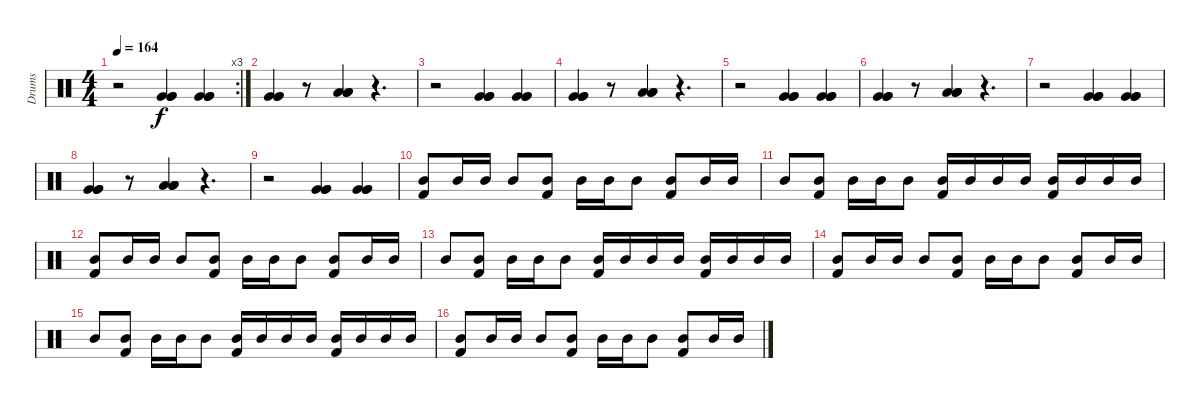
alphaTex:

\track ("Drums" "Drums") {instrument percussion}
\staff {score}
\articulation defaults
\rc 3
\ts (4 4)
\tempo 164
\clef neutral
\ks c
r.2{dy f} ("Very Low Tom (hit)" "Very Low Tom (hit)" "Very Low Tom (hit)").4 ("Very Low Tom (hit)" "Very Low Tom (hit)" "Very Low Tom (hit)").4 |
("Very Low Tom (hit)" "Very Low Tom (hit)" "Very Low Tom (hit)").4 r.8 ("Low Tom (hit)" "Low Tom (hit)" "Low Tom (hit)").4 r.4{d} |
r.2 ("Very Low Tom (hit)" "Very Low Tom (hit)" "Very Low Tom (hit)").4 ("Very Low Tom (hit)" "Very Low Tom (hit)" "Very Low Tom (hit)").4 |
("Very Low Tom (hit)" "Very Low Tom (hit)" "Very Low Tom (hit)").4 r.8 ("Low Tom (hit)" "Low Tom (hit)" "Low Tom (hit)").4 r.4{d} |
r.2 ("Very Low Tom (hit)" "Very Low Tom (hit)" "Very Low Tom (hit)").4 ("Very Low Tom (hit)" "Very Low Tom (hit)" "Very Low Tom (hit)").4 |
("Very Low Tom (hit)" "Very Low Tom (hit)" "Very Low Tom (hit)").4 r.8 ("Low Tom (hit)" "Low Tom (hit)" "Low Tom (hit)").4 r.4{d} |
r.2 ("Very Low Tom (hit)" "Very Low Tom (hit)" "Very Low Tom (hit)").4 ("Very Low Tom (hit)" "Very Low Tom (hit)" "Very Low Tom (hit)").4 |
("Very Low Tom (hit)" "Very Low Tom (hit)" "Very Low Tom (hit)").4 r.8 ("Low Tom (hit)" "Low Tom (hit)" "Low Tom (hit)").4 r.4{d} |
r.2 ("Very Low Tom (hit)" "Very Low Tom (hit)" "Very Low Tom (hit)").4 ("Very Low Tom (hit)" "Very Low Tom (hit)" "Very Low Tom (hit)").4 |
("Mid Tom (hit)" "Kick (hit) 2").8 "Mid Tom (hit)".16 "Mid Tom (hit)".16 "Mid Tom (hit)".8 ("Mid Tom (hit)" "Kick (hit) 2").8 "Mid Tom (hit)".16 "Mid Tom (hit)".16 "Mid Tom (hit)".8 ("Mid Tom (hit)" "Kick (hit) 2").8 "Mid Tom (hit)".16 "Mid Tom (hit)".16 |
"Mid Tom (hit)".8 ("Mid Tom (hit)" "Kick (hit) 2").8 "Mid Tom (hit)".16 "Mid Tom (hit)".16 "Mid Tom (hit)".8 ("Mid Tom (hit)" "Kick (hit) 2").16 "Mid Tom (hit)".16 "Mid Tom (hit)".16 "Mid Tom (hit)".16 ("Mid Tom (hit)" "Kick (hit) 2").16 "Mid Tom (hit)".16 "Mid Tom (hit)".16 "Mid Tom (hit)".16 |
("Mid Tom (hit)" "Kick (hit) 2").8 "Mid Tom (hit)".16 "Mid Tom (hit)".16 "Mid Tom (hit)".8 ("Mid Tom (hit)" "Kick (hit) 2").8 "Mid Tom (hit)".16 "Mid Tom (hit)".16 "Mid Tom (hit)".8 ("Mid Tom (hit)" "Kick (hit) 2").8 "Mid Tom (hit)".16 "Mid Tom (hit)".16 |
"Mid Tom (hit)".8 ("Mid Tom (hit)" "Kick (hit) 2").8 "Mid Tom (hit)".16 "Mid Tom (hit)".16 "Mid Tom (hit)".8 ("Mid Tom (hit)" "Kick (hit) 2").16 "Mid Tom (hit)".16 "Mid Tom (hit)".16 "Mid Tom (hit)".16 ("Mid Tom (hit)" "Kick (hit) 2").16 "Mid Tom (hit)".16 "Mid Tom (hit)".16 "Mid Tom (hit)".16 |
("Mid Tom (hit)" "Kick (hit) 2").8 "Mid Tom (hit)".16 "Mid Tom (hit)".16 "Mid Tom (hit)".8 ("Mid Tom (hit)" "Kick (hit) 2").8 "Mid Tom (hit)".16 "Mid Tom (hit)".16 "Mid Tom (hit)".8 ("Mid Tom (hit)" "Kick (hit) 2").8 "Mid Tom (hit)".16 "Mid Tom (hit)".16 |
"Mid Tom (hit)".8 ("Mid Tom (hit)" "Kick (hit) 2").8 "Mid Tom (hit)".16 "Mid Tom (hit)".16 "Mid Tom (hit)".8 ("Mid Tom (hit)" "Kick (hit) 2").16 "Mid Tom (hit)".16 "Mid Tom (hit)".16 "Mid Tom (hit)".16 ("Mid Tom (hit)" "Kick (hit) 2").16 "Mid Tom (hit)".16 "Mid Tom (hit)".16 "Mid Tom (hit)".16 |
("Mid Tom (hit)" "Kick (hit) 2").8 "Mid Tom (hit)".16 "Mid Tom (hit)".16 "Mid Tom (hit)".8 ("Mid Tom (hit)" "Kick (hit) 2").8 "Mid Tom (hit)".16 "Mid Tom (hit)".16 "Mid Tom (hit)".8 ("Mid Tom (hit)" "Kick (hit) 2").8 "Mid Tom (hit)".16 "Mid Tom (hit)".16
